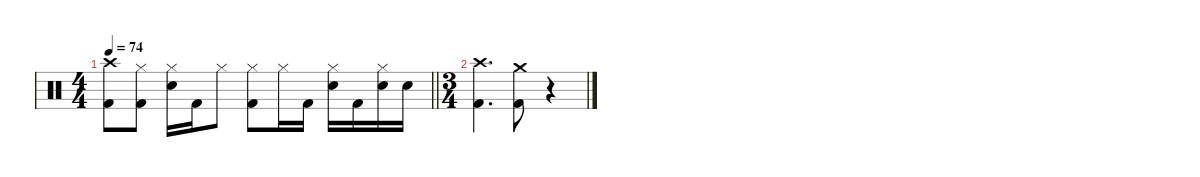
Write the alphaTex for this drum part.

\defaultSystemsLayout 4
\hideDynamics
\bracketExtendMode nobrackets
\singleTrackTrackNamePolicy hidden
\multiTrackTrackNamePolicy hidden
\firstSystemTrackNameMode fullname
\firstSystemTrackNameOrientation horizontal
\otherSystemsTrackNameOrientation horizontal
\track ("Bill Ward" "drm.") {instrument percussion}
\staff {score}
\articulation defaults
\ts (4 4)
\tempo 74
\clef neutral
\barLineRight lightlight
\ks c
("Kick (hit) 2" "Crash high (hit)").8{dy f beam Down} ("Kick (hit) 2" "Hi-Hat (closed)").8{beam Down} ("Snare (hit) 2" "Hi-Hat (closed)").16{beam Down} "Kick (hit) 2".16{beam Down} "Hi-Hat (closed)".8{beam Down} ("Kick (hit) 2" "Hi-Hat (closed)").8{beam Down} "Hi-Hat (closed)".16{beam Down} "Kick (hit) 2".16{beam Down} ("Snare (hit) 2" "Hi-Hat (closed)").16{beam Down} "Kick (hit) 2".16{beam Down} ("Snare (hit) 2" "Hi-Hat (closed)").16{beam Down} "Snare (hit) 2".16{beam Down} |
\ts (3 4)
\beaming (8 2 2 2)
("Kick (hit) 2" "Crash high (hit)").4{d beam Down} ("Kick (hit) 2" "Crash medium (hit)").8{beam Down} r.4{beam Down}
